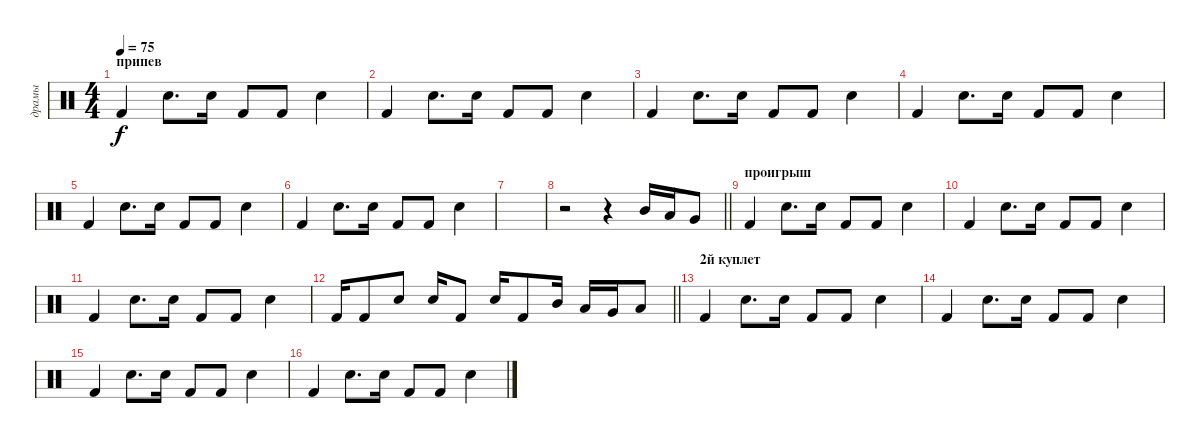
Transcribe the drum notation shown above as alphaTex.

\track ("драмы" "драмы") {instrument percussion}
\staff {score}
\articulation defaults
\ts (4 4)
\section ("" "припев")
\tempo 75
\clef neutral
\ks c "Kick (hit) 2".4{dy f} "Electric Snare (hit)".8{d} "Electric Snare (hit)".16 "Kick (hit) 2".8 "Kick (hit) 2".8 "Electric Snare (hit)".4
|
"Kick (hit) 2".4 "Electric Snare (hit)".8{d} "Electric Snare (hit)".16 "Kick (hit) 2".8 "Kick (hit) 2".8 "Electric Snare (hit)".4 |
"Kick (hit) 2".4 "Electric Snare (hit)".8{d} "Electric Snare (hit)".16 "Kick (hit) 2".8 "Kick (hit) 2".8 "Electric Snare (hit)".4 |
"Kick (hit) 2".4 "Electric Snare (hit)".8{d} "Electric Snare (hit)".16 "Kick (hit) 2".8 "Kick (hit) 2".8 "Electric Snare (hit)".4 |
"Kick (hit) 2".4 "Electric Snare (hit)".8{d} "Electric Snare (hit)".16 "Kick (hit) 2".8 "Kick (hit) 2".8 "Electric Snare (hit)".4 |
"Kick (hit) 2".4 "Electric Snare (hit)".8{d} "Electric Snare (hit)".16 "Kick (hit) 2".8 "Kick (hit) 2".8 "Electric Snare (hit)".4 |
|
\barLineRight lightlight
r.2 r.4 "Mid Tom (hit)".16 "Low Tom (hit)".16 "Very Low Tom (hit)".8 |
\section ("" "проигрыш")
"Kick (hit) 2".4 "Electric Snare (hit)".8{d} "Electric Snare (hit)".16 "Kick (hit) 2".8 "Kick (hit) 2".8 "Electric Snare (hit)".4 |
"Kick (hit) 2".4 "Electric Snare (hit)".8{d} "Electric Snare (hit)".16 "Kick (hit) 2".8 "Kick (hit) 2".8 "Electric Snare (hit)".4 |
"Kick (hit) 2".4 "Electric Snare (hit)".8{d} "Electric Snare (hit)".16 "Kick (hit) 2".8 "Kick (hit) 2".8 "Electric Snare (hit)".4 |
\barLineRight lightlight "Kick (hit) 2".16 "Kick (hit) 2".8 "Electric Snare (hit)".8 "Electric Snare (hit)".16 "Kick (hit) 2".8 "Electric Snare (hit)".16 "Kick (hit) 2".8 "Mid Tom (hit)".16 "Low Tom (hit)".16 "Very Low Tom (hit)".16 "Low Floor Tom (hit)".8
|
\section ("" "2й куплет")
"Kick (hit) 2".4 "Electric Snare (hit)".8{d} "Electric Snare (hit)".16 "Kick (hit) 2".8 "Kick (hit) 2".8 "Electric Snare (hit)".4 |
"Kick (hit) 2".4 "Electric Snare (hit)".8{d} "Electric Snare (hit)".16 "Kick (hit) 2".8 "Kick (hit) 2".8 "Electric Snare (hit)".4 |
"Kick (hit) 2".4 "Electric Snare (hit)".8{d} "Electric Snare (hit)".16 "Kick (hit) 2".8 "Kick (hit) 2".8 "Electric Snare (hit)".4 |
"Kick (hit) 2".4 "Electric Snare (hit)".8{d} "Electric Snare (hit)".16 "Kick (hit) 2".8 "Kick (hit) 2".8 "Electric Snare (hit)".4
